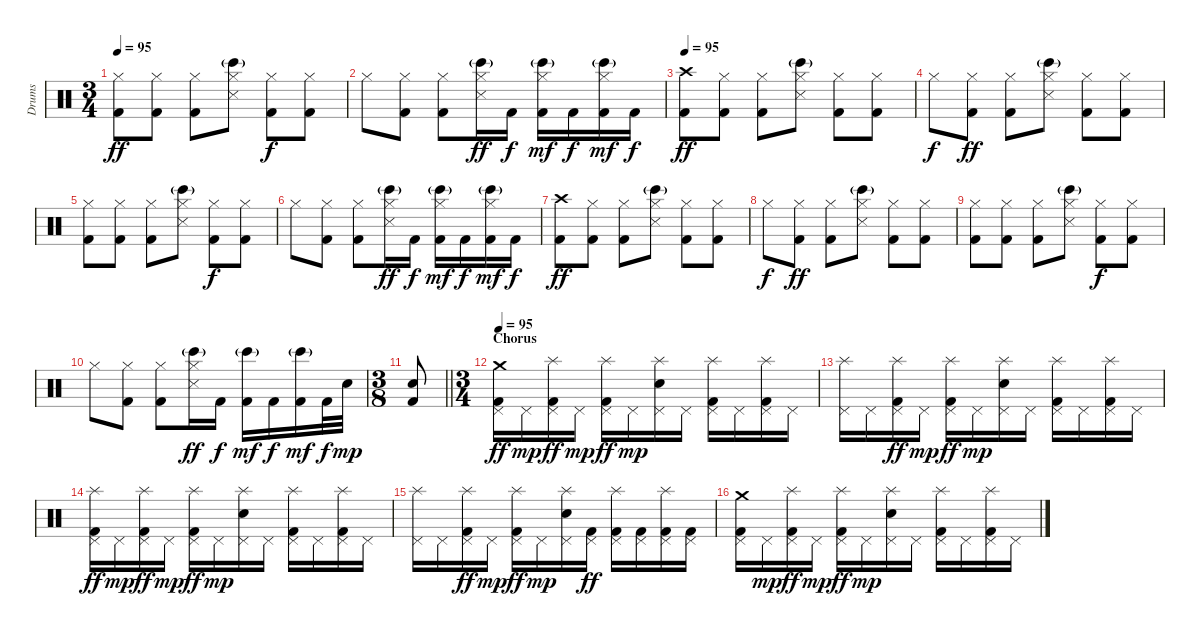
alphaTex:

\track ("Drums" "Drums") {instrument percussion}
\staff {score}
\articulation defaults
\ts (3 4)
\tempo 95
\clef neutral
\ks c
("Hi-Hat (closed)" "Kick (hit) 2").8{dy ff} ("Hi-Hat (closed)" "Kick (hit) 2").8 ("Hi-Hat (closed)" "Kick (hit) 2").8 ("Hi-Hat (closed)" "Bongo High (hit)"{g} "Snare (side stick) 3").8 ("Hi-Hat (closed)" "Kick (hit) 2").8{dy f} ("Hi-Hat (closed)" "Kick (hit) 2").8 |
"Hi-Hat (closed)".8 ("Hi-Hat (closed)" "Kick (hit) 2").8 ("Hi-Hat (closed)" "Kick (hit) 2").8 ("Hi-Hat (closed)" "Bongo High (hit)"{g} "Snare (side stick) 3").16{dy ff} "Kick (hit) 2".16{dy f} ("Hi-Hat (closed)" "Bongo High (hit)"{g} "Kick (hit) 2").16{dy mf} "Kick (hit) 2".16{dy f} ("Hi-Hat (closed)" "Bongo High (hit)"{g} "Kick (hit) 2").16{dy mf} "Kick (hit) 2".16{dy f} |
\tempo 95
("Crash high (hit)" "Kick (hit) 2").8{dy ff} ("Hi-Hat (closed)" "Kick (hit) 2").8 ("Hi-Hat (closed)" "Kick (hit) 2").8 ("Hi-Hat (closed)" "Bongo High (hit)"{g} "Snare (side stick) 3").8 ("Hi-Hat (closed)" "Kick (hit) 2").8 ("Hi-Hat (closed)" "Kick (hit) 2").8 |
"Hi-Hat (closed)".8{dy f} ("Hi-Hat (closed)" "Kick (hit) 2").8{dy ff} ("Hi-Hat (closed)" "Kick (hit) 2").8 ("Hi-Hat (closed)" "Bongo High (hit)"{g} "Snare (side stick) 3").8 ("Hi-Hat (closed)" "Kick (hit) 2").8 ("Hi-Hat (closed)" "Kick (hit) 2").8 |
("Hi-Hat (closed)" "Kick (hit) 2").8 ("Hi-Hat (closed)" "Kick (hit) 2").8 ("Hi-Hat (closed)" "Kick (hit) 2").8 ("Hi-Hat (closed)" "Bongo High (hit)"{g} "Snare (side stick) 3").8 ("Hi-Hat (closed)" "Kick (hit) 2").8{dy f} ("Hi-Hat (closed)" "Kick (hit) 2").8 |
"Hi-Hat (closed)".8 ("Hi-Hat (closed)" "Kick (hit) 2").8 ("Hi-Hat (closed)" "Kick (hit) 2").8 ("Hi-Hat (closed)" "Bongo High (hit)"{g} "Snare (side stick) 3").16{dy ff} "Kick (hit) 2".16{dy f} ("Hi-Hat (closed)" "Bongo High (hit)"{g} "Kick (hit) 2").16{dy mf} "Kick (hit) 2".16{dy f} ("Hi-Hat (closed)" "Bongo High (hit)"{g} "Kick (hit) 2").16{dy mf} "Kick (hit) 2".16{dy f} |
("Crash high (hit)" "Kick (hit) 2").8{dy ff} ("Hi-Hat (closed)" "Kick (hit) 2").8 ("Hi-Hat (closed)" "Kick (hit) 2").8 ("Hi-Hat (closed)" "Bongo High (hit)"{g} "Snare (side stick) 3").8 ("Hi-Hat (closed)" "Kick (hit) 2").8 ("Hi-Hat (closed)" "Kick (hit) 2").8 |
"Hi-Hat (closed)".8{dy f} ("Hi-Hat (closed)" "Kick (hit) 2").8{dy ff} ("Hi-Hat (closed)" "Kick (hit) 2").8 ("Hi-Hat (closed)" "Bongo High (hit)"{g} "Snare (side stick) 3").8 ("Hi-Hat (closed)" "Kick (hit) 2").8 ("Hi-Hat (closed)" "Kick (hit) 2").8 |
("Hi-Hat (closed)" "Kick (hit) 2").8 ("Hi-Hat (closed)" "Kick (hit) 2").8 ("Hi-Hat (closed)" "Kick (hit) 2").8 ("Hi-Hat (closed)" "Bongo High (hit)"{g} "Snare (side stick) 3").8 ("Hi-Hat (closed)" "Kick (hit) 2").8{dy f} ("Hi-Hat (closed)" "Kick (hit) 2").8 |
"Hi-Hat (closed)".8 ("Hi-Hat (closed)" "Kick (hit) 2").8 ("Hi-Hat (closed)" "Kick (hit) 2").8 ("Hi-Hat (closed)" "Bongo High (hit)"{g} "Snare (side stick) 3").16{dy ff} "Kick (hit) 2".16{dy f} ("Bongo High (hit)"{g} "Kick (hit) 2").16{dy mf} "Kick (hit) 2".16{dy f} ("Bongo High (hit)"{g} "Kick (hit) 2").16{dy mf} "Kick (hit) 2".32{dy f} "Electric Snare (hit)".32{dy mp} |
\ts (3 8)
\barLineRight lightlight
("Electric Snare (hit)" "Kick (hit) 2").8 |
\ts (3 4)
\section ("" "Chorus")
\tempo 95
("Crash medium (hit)" "Pedal Hi-Hat (hit)" "Kick (hit) 2").16{dy ff} "Pedal Hi-Hat (hit)".16{dy mp} ("Splash (hit)" "Pedal Hi-Hat (hit)" "Kick (hit) 2").16{dy ff} "Pedal Hi-Hat (hit)".16{dy mp} ("Splash (hit)" "Pedal Hi-Hat (hit)" "Kick (hit) 2").16{dy ff} "Pedal Hi-Hat (hit)".16{dy mp} ("Splash (hit)" "Pedal Hi-Hat (hit)" "Electric Snare (hit)").16 "Pedal Hi-Hat (hit)".16 ("Splash (hit)" "Pedal Hi-Hat (hit)" "Kick (hit) 2").16 "Pedal Hi-Hat (hit)".16 ("Splash (hit)" "Pedal Hi-Hat (hit)" "Kick (hit) 2").16 "Pedal Hi-Hat (hit)".16 |
("Splash (hit)" "Pedal Hi-Hat (hit)").16 "Pedal Hi-Hat (hit)".16 ("Splash (hit)" "Pedal Hi-Hat (hit)" "Kick (hit) 2").16{dy ff} "Pedal Hi-Hat (hit)".16{dy mp} ("Splash (hit)" "Pedal Hi-Hat (hit)" "Kick (hit) 2").16{dy ff} "Pedal Hi-Hat (hit)".16{dy mp} ("Splash (hit)" "Pedal Hi-Hat (hit)" "Electric Snare (hit)").16 "Pedal Hi-Hat (hit)".16 ("Splash (hit)" "Pedal Hi-Hat (hit)" "Kick (hit) 2").16 "Pedal Hi-Hat (hit)".16 ("Splash (hit)" "Pedal Hi-Hat (hit)" "Kick (hit) 2").16 "Pedal Hi-Hat (hit)".16 |
("Splash (hit)" "Pedal Hi-Hat (hit)" "Kick (hit) 2").16{dy ff} "Pedal Hi-Hat (hit)".16{dy mp} ("Splash (hit)" "Pedal Hi-Hat (hit)" "Kick (hit) 2").16{dy ff} "Pedal Hi-Hat (hit)".16{dy mp} ("Splash (hit)" "Pedal Hi-Hat (hit)" "Kick (hit) 2").16{dy ff} "Pedal Hi-Hat (hit)".16{dy mp} ("Splash (hit)" "Pedal Hi-Hat (hit)" "Electric Snare (hit)").16 "Pedal Hi-Hat (hit)".16 ("Splash (hit)" "Pedal Hi-Hat (hit)" "Kick (hit) 2").16 "Pedal Hi-Hat (hit)".16 ("Splash (hit)" "Pedal Hi-Hat (hit)" "Kick (hit) 2").16 "Pedal Hi-Hat (hit)".16 |
("Splash (hit)" "Pedal Hi-Hat (hit)").16 "Pedal Hi-Hat (hit)".16 ("Splash (hit)" "Pedal Hi-Hat (hit)" "Kick (hit) 2").16{dy ff} "Pedal Hi-Hat (hit)".16{dy mp} ("Splash (hit)" "Pedal Hi-Hat (hit)" "Kick (hit) 2").16{dy ff} "Pedal Hi-Hat (hit)".16{dy mp} ("Splash (hit)" "Pedal Hi-Hat (hit)" "Electric Snare (hit)").16 ("Pedal Hi-Hat (hit)" "Kick (hit) 2").16{dy ff} ("Splash (hit)" "Pedal Hi-Hat (hit)" "Kick (hit) 2").16 ("Pedal Hi-Hat (hit)" "Kick (hit) 2").16 ("Splash (hit)" "Pedal Hi-Hat (hit)" "Kick (hit) 2").16 ("Pedal Hi-Hat (hit)" "Kick (hit) 2").16 |
("Crash medium (hit)" "Pedal Hi-Hat (hit)" "Kick (hit) 2").16 "Pedal Hi-Hat (hit)".16{dy mp} ("Splash (hit)" "Pedal Hi-Hat (hit)" "Kick (hit) 2").16{dy ff} "Pedal Hi-Hat (hit)".16{dy mp} ("Splash (hit)" "Pedal Hi-Hat (hit)" "Kick (hit) 2").16{dy ff} "Pedal Hi-Hat (hit)".16{dy mp} ("Splash (hit)" "Pedal Hi-Hat (hit)" "Electric Snare (hit)").16 "Pedal Hi-Hat (hit)".16 ("Splash (hit)" "Pedal Hi-Hat (hit)" "Kick (hit) 2").16 "Pedal Hi-Hat (hit)".16 ("Splash (hit)" "Pedal Hi-Hat (hit)" "Kick (hit) 2").16 "Pedal Hi-Hat (hit)".16
